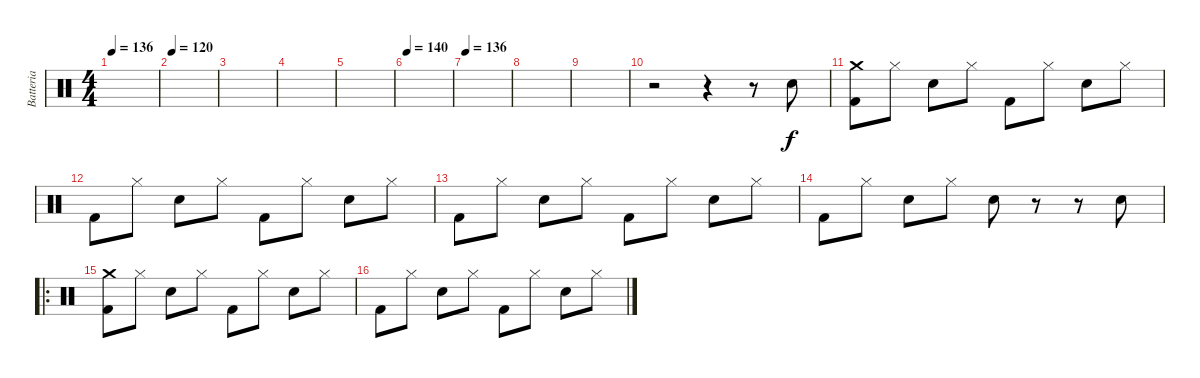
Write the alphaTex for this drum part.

\track ("Batteria" "Batteria") {instrument percussion}
\staff {score}
\articulation defaults
\ts (4 4)
\tempo 136
\clef neutral
\ks c
|
\tempo 128
\tempo 120
|
|
|
|
\tempo 140
|
\tempo 136
|
|
|
r.2 r.4 r.8 "Electric Snare (hit)".8 |
("Crash medium (hit)" "Kick (hit) 2").8 "Hi-Hat (closed)".8 "Electric Snare (hit)".8 "Hi-Hat (closed)".8 "Kick (hit) 2".8 "Hi-Hat (closed)".8 "Electric Snare (hit)".8 "Hi-Hat (closed)".8 |
"Kick (hit) 2".8 "Hi-Hat (closed)".8 "Electric Snare (hit)".8 "Hi-Hat (closed)".8 "Kick (hit) 2".8 "Hi-Hat (closed)".8 "Electric Snare (hit)".8 "Hi-Hat (closed)".8 |
"Kick (hit) 2".8 "Hi-Hat (closed)".8 "Electric Snare (hit)".8 "Hi-Hat (closed)".8 "Kick (hit) 2".8 "Hi-Hat (closed)".8 "Electric Snare (hit)".8 "Hi-Hat (closed)".8 |
"Kick (hit) 2".8 "Hi-Hat (closed)".8 "Electric Snare (hit)".8 "Hi-Hat (closed)".8 "Electric Snare (hit)".8 r.8 r.8 "Electric Snare (hit)".8 |
\ro
("Crash medium (hit)" "Kick (hit) 2").8 "Hi-Hat (closed)".8 "Electric Snare (hit)".8 "Hi-Hat (closed)".8 "Kick (hit) 2".8 "Hi-Hat (closed)".8 "Electric Snare (hit)".8 "Hi-Hat (closed)".8 |
"Kick (hit) 2".8 "Hi-Hat (closed)".8 "Electric Snare (hit)".8 "Hi-Hat (closed)".8 "Kick (hit) 2".8 "Hi-Hat (closed)".8 "Electric Snare (hit)".8 "Hi-Hat (closed)".8
